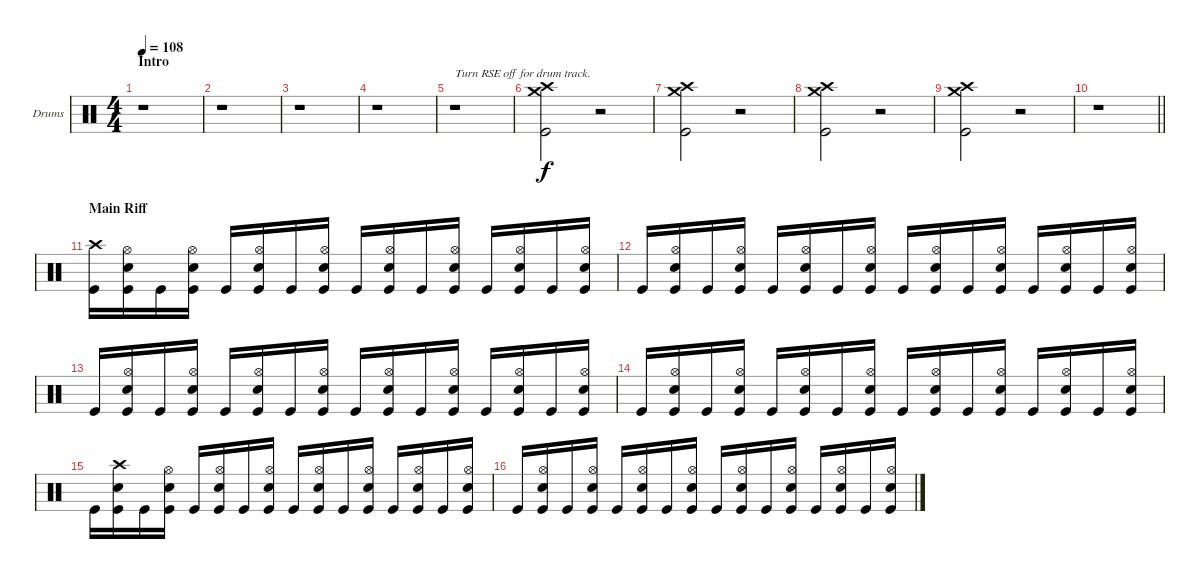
\bracketExtendMode groupsimilarinstruments
\firstSystemTrackNameOrientation horizontal
\otherSystemsTrackNameOrientation horizontal
\track ("Drumkit" "Drums") {instrument percussion}
\staff {score}
\articulation defaults
\ts (4 4)
\section ("" "Intro")
\tempo 108
\clef neutral
\ks c
r.1{dy f} |
r.1 |
r.1 |
r.1 |
r.1{txt "Turn RSE off for drum track."} |
("Crash high (hit)" "Crash medium (hit)" "Kick (hit)").2 r.2 |
("Crash high (hit)" "Crash medium (hit)" "Kick (hit)").2 r.2 |
("Crash high (hit)" "Crash medium (hit)" "Kick (hit)").2 r.2 |
("Crash high (hit)" "Crash medium (hit)" "Kick (hit)").2 r.2 |
\barLineRight lightlight
r.1 |
\section ("" "Main Riff")
("Crash high (hit)" "Kick (hit)").16 ("Hi-Hat (open)" "Snare (hit) 2" "Kick (hit)").16 "Kick (hit)".16 ("Hi-Hat (open)" "Snare (hit) 2" "Kick (hit)").16 "Kick (hit)".16 ("Hi-Hat (open)" "Snare (hit) 2" "Kick (hit)").16 "Kick (hit)".16 ("Hi-Hat (open)" "Snare (hit) 2" "Kick (hit)").16 "Kick (hit)".16 ("Hi-Hat (open)" "Snare (hit) 2" "Kick (hit)").16 "Kick (hit)".16 ("Hi-Hat (open)" "Snare (hit) 2" "Kick (hit)").16 "Kick (hit)".16 ("Hi-Hat (open)" "Snare (hit) 2" "Kick (hit)").16 "Kick (hit)".16 ("Hi-Hat (open)" "Snare (hit) 2" "Kick (hit)").16 |
"Kick (hit)".16 ("Hi-Hat (open)" "Snare (hit) 2" "Kick (hit)").16 "Kick (hit)".16 ("Hi-Hat (open)" "Snare (hit) 2" "Kick (hit)").16 "Kick (hit)".16 ("Hi-Hat (open)" "Snare (hit) 2" "Kick (hit)").16 "Kick (hit)".16 ("Hi-Hat (open)" "Snare (hit) 2" "Kick (hit)").16 "Kick (hit)".16 ("Hi-Hat (open)" "Snare (hit) 2" "Kick (hit)").16 "Kick (hit)".16 ("Hi-Hat (open)" "Snare (hit) 2" "Kick (hit)").16 "Kick (hit)".16 ("Hi-Hat (open)" "Snare (hit) 2" "Kick (hit)").16 "Kick (hit)".16 ("Hi-Hat (open)" "Snare (hit) 2" "Kick (hit)").16 |
"Kick (hit)".16 ("Hi-Hat (open)" "Snare (hit) 2" "Kick (hit)").16 "Kick (hit)".16 ("Hi-Hat (open)" "Snare (hit) 2" "Kick (hit)").16 "Kick (hit)".16 ("Hi-Hat (open)" "Snare (hit) 2" "Kick (hit)").16 "Kick (hit)".16 ("Hi-Hat (open)" "Snare (hit) 2" "Kick (hit)").16 "Kick (hit)".16 ("Hi-Hat (open)" "Snare (hit) 2" "Kick (hit)").16 "Kick (hit)".16 ("Hi-Hat (open)" "Snare (hit) 2" "Kick (hit)").16 "Kick (hit)".16 ("Hi-Hat (open)" "Snare (hit) 2" "Kick (hit)").16 "Kick (hit)".16 ("Hi-Hat (open)" "Snare (hit) 2" "Kick (hit)").16 |
"Kick (hit)".16 ("Hi-Hat (open)" "Snare (hit) 2" "Kick (hit)").16 "Kick (hit)".16 ("Hi-Hat (open)" "Snare (hit) 2" "Kick (hit)").16 "Kick (hit)".16 ("Hi-Hat (open)" "Snare (hit) 2" "Kick (hit)").16 "Kick (hit)".16 ("Hi-Hat (open)" "Snare (hit) 2" "Kick (hit)").16 "Kick (hit)".16 ("Hi-Hat (open)" "Snare (hit) 2" "Kick (hit)").16 "Kick (hit)".16 ("Hi-Hat (open)" "Snare (hit) 2" "Kick (hit)").16 "Kick (hit)".16 ("Hi-Hat (open)" "Snare (hit) 2" "Kick (hit)").16 "Kick (hit)".16 ("Hi-Hat (open)" "Snare (hit) 2" "Kick (hit)").16 |
"Kick (hit)".16 ("Crash high (hit)" "Snare (hit) 2" "Kick (hit)").16 "Kick (hit)".16 ("Hi-Hat (open)" "Snare (hit) 2" "Kick (hit)").16 "Kick (hit)".16 ("Hi-Hat (open)" "Snare (hit) 2" "Kick (hit)").16 "Kick (hit)".16 ("Hi-Hat (open)" "Snare (hit) 2" "Kick (hit)").16 "Kick (hit)".16 ("Hi-Hat (open)" "Snare (hit) 2" "Kick (hit)").16 "Kick (hit)".16 ("Hi-Hat (open)" "Snare (hit) 2" "Kick (hit)").16 "Kick (hit)".16 ("Hi-Hat (open)" "Snare (hit) 2" "Kick (hit)").16 "Kick (hit)".16 ("Hi-Hat (open)" "Snare (hit) 2" "Kick (hit)").16 |
"Kick (hit)".16 ("Hi-Hat (open)" "Snare (hit) 2" "Kick (hit)").16 "Kick (hit)".16 ("Hi-Hat (open)" "Snare (hit) 2" "Kick (hit)").16 "Kick (hit)".16 ("Hi-Hat (open)" "Snare (hit) 2" "Kick (hit)").16 "Kick (hit)".16 ("Hi-Hat (open)" "Snare (hit) 2" "Kick (hit)").16 "Kick (hit)".16 ("Hi-Hat (open)" "Snare (hit) 2" "Kick (hit)").16 "Kick (hit)".16 ("Hi-Hat (open)" "Snare (hit) 2" "Kick (hit)").16 "Kick (hit)".16 ("Hi-Hat (open)" "Snare (hit) 2" "Kick (hit)").16 "Kick (hit)".16 ("Hi-Hat (open)" "Snare (hit) 2" "Kick (hit)").16
